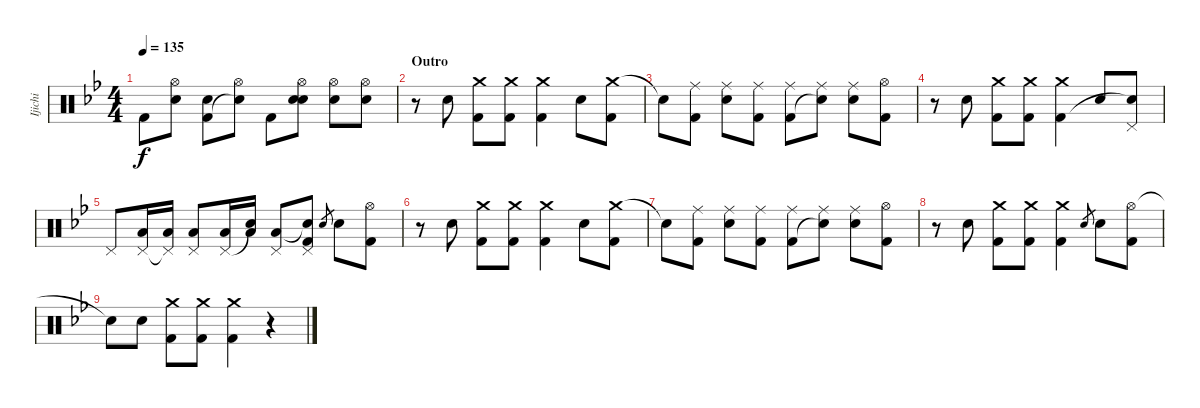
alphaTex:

\track ("Ijichi" "Ijichi") {instrument percussion}
\staff {score}
\articulation defaults
\ts (4 4)
\tempo 135
\clef neutral
\ks bb "Kick (hit) 2".8{dy f}
("Hi-Hat (open)" "Snare (hit)"{t}).8 ("Electric Snare (hit)" "Kick (hit) 2").8 ("Hi-Hat (open)" "Snare (hit)"{t}).8 "Kick (hit) 2".8 ("Hi-Hat (open)" "Electric Snare (hit)" "Snare (hit)").8 ("Hi-Hat (open)" "Electric Snare (hit)").8 ("Hi-Hat (open)" "Electric Snare (hit)").8 |
\section ("" "Outro")
r.8 "Electric Snare (hit)".8 ("Crash medium (hit)" "Kick (hit) 2").8 ("Crash medium (hit)" "Kick (hit) 2").8 ("Crash medium (hit)" "Kick (hit) 2").4 "Electric Snare (hit)".8 ("Crash medium (hit)" "Kick (hit) 2").8 |
"Snare (hit)"{t}.8 ("Ride (middle)" "Kick (hit) 2").8 ("Ride (middle)" "Electric Snare (hit)").8 ("Ride (middle)" "Kick (hit) 2").8 ("Ride (middle)" "Kick (hit) 2").8 ("Ride (middle)" "Snare (hit)"{t}).8 ("Ride (middle)" "Electric Snare (hit)").8 ("Hi-Hat (open)" "Kick (hit) 2").8 |
r.8 "Electric Snare (hit)".8 ("Crash medium (hit)" "Kick (hit) 2").8 ("Crash medium (hit)" "Kick (hit) 2").8 ("Crash medium (hit)" "Kick (hit) 2").4 "Electric Snare (hit)".8 ("Pedal Hi-Hat (hit)" "Snare (hit)"{t}).8 |
"Pedal Hi-Hat (hit)".8 ("Pedal Hi-Hat (hit)" "Low Tom (hit)").16 ("Pedal Hi-Hat (hit)"{t} "Low Tom (hit)").16 ("Pedal Hi-Hat (hit)" "Low Tom (hit)").8 ("Pedal Hi-Hat (hit)" "Low Floor Tom (hit)").16 ("Snare (hit)"{t} "Low Floor Tom (hit)").16 ("Pedal Hi-Hat (hit)" "Low Floor Tom (hit)").8 ("Pedal Hi-Hat (hit)" "Snare (hit)"{t} "Kick (hit) 2").8 "Electric Snare (hit)".8{gr} "Electric Snare (hit)".8 ("Hi-Hat (open)" "Kick (hit) 2").8 |
r.8 "Electric Snare (hit)".8 ("Crash medium (hit)" "Kick (hit) 2").8 ("Crash medium (hit)" "Kick (hit) 2").8 ("Crash medium (hit)" "Kick (hit) 2").4 "Electric Snare (hit)".8 ("Crash medium (hit)" "Kick (hit) 2").8 |
"Snare (hit)"{t}.8 ("Ride (middle)" "Kick (hit) 2").8 ("Ride (middle)" "Electric Snare (hit)").8 ("Ride (middle)" "Kick (hit) 2").8 ("Ride (middle)" "Kick (hit) 2").8 ("Ride (middle)" "Snare (hit)"{t}).8 ("Ride (middle)" "Electric Snare (hit)").8 ("Hi-Hat (open)" "Kick (hit) 2").8 |
r.8 "Electric Snare (hit)".8 ("Crash medium (hit)" "Kick (hit) 2").8 ("Crash medium (hit)" "Kick (hit) 2").8 ("Crash medium (hit)" "Kick (hit) 2").4 "Electric Snare (hit)".8{gr} "Electric Snare (hit)".8 ("Hi-Hat (open)" "Kick (hit) 2").8 |
"Snare (hit)"{t}.8 "Electric Snare (hit)".8 ("Crash medium (hit)" "Kick (hit) 2").8 ("Crash medium (hit)" "Kick (hit) 2").8 ("Crash medium (hit)" "Kick (hit) 2").4 r.4
